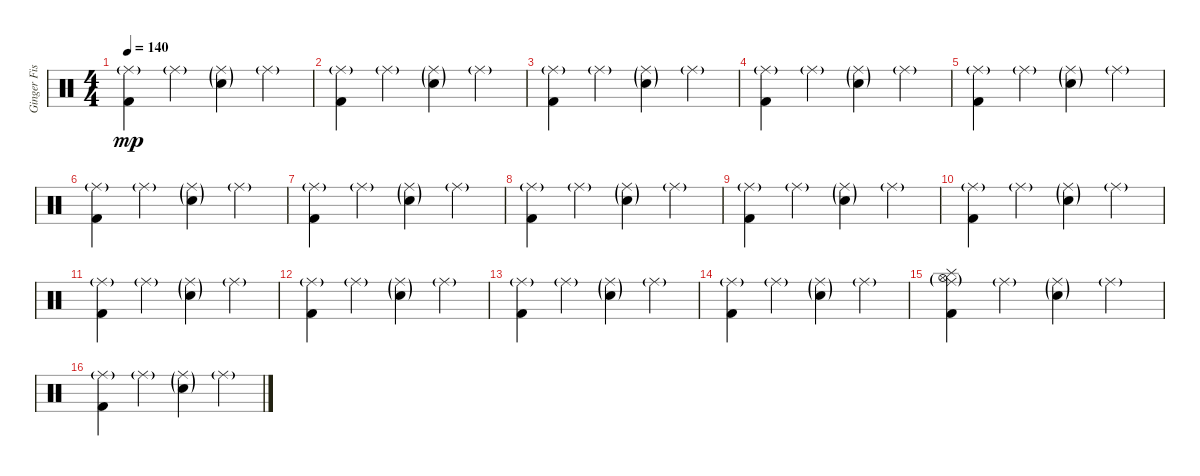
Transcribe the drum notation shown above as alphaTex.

\track ("Ginger Fish" "Ginger Fis") {instrument percussion}
\staff {score}
\articulation defaults
\ts (4 4)
\tempo 140
\clef neutral
\ks c
("Ride (middle)"{g} "Kick (hit) 2").4{dy mp} "Ride (middle)"{g}.4 ("Ride (middle)"{g} "Snare (hit) 2"{g}).4 "Ride (middle)"{g}.4 |
("Ride (middle)"{g} "Kick (hit) 2").4 "Ride (middle)"{g}.4 ("Ride (middle)"{g} "Snare (hit) 2"{g}).4 "Ride (middle)"{g}.4 |
("Ride (middle)"{g} "Kick (hit) 2").4 "Ride (middle)"{g}.4 ("Ride (middle)"{g} "Snare (hit) 2"{g}).4 "Ride (middle)"{g}.4 |
("Ride (middle)"{g} "Kick (hit) 2").4 "Ride (middle)"{g}.4 ("Ride (middle)"{g} "Snare (hit) 2"{g}).4 "Ride (middle)"{g}.4 |
("Ride (middle)"{g} "Kick (hit) 2").4 "Ride (middle)"{g}.4 ("Ride (middle)"{g} "Snare (hit) 2"{g}).4 "Ride (middle)"{g}.4 |
("Ride (middle)"{g} "Kick (hit) 2").4 "Ride (middle)"{g}.4 ("Ride (middle)"{g} "Snare (hit) 2"{g}).4 "Ride (middle)"{g}.4 |
("Ride (middle)"{g} "Kick (hit) 2").4 "Ride (middle)"{g}.4 ("Ride (middle)"{g} "Snare (hit) 2"{g}).4 "Ride (middle)"{g}.4 |
("Ride (middle)"{g} "Kick (hit) 2").4 "Ride (middle)"{g}.4 ("Ride (middle)"{g} "Snare (hit) 2"{g}).4 "Ride (middle)"{g}.4 |
("Ride (middle)"{g} "Kick (hit) 2").4 "Ride (middle)"{g}.4 ("Ride (middle)"{g} "Snare (hit) 2"{g}).4 "Ride (middle)"{g}.4 |
("Ride (middle)"{g} "Kick (hit) 2").4 "Ride (middle)"{g}.4 ("Ride (middle)"{g} "Snare (hit) 2"{g}).4 "Ride (middle)"{g}.4 |
("Ride (middle)"{g} "Kick (hit) 2").4 "Ride (middle)"{g}.4 ("Ride (middle)"{g} "Snare (hit) 2"{g}).4 "Ride (middle)"{g}.4 |
("Ride (middle)"{g} "Kick (hit) 2").4 "Ride (middle)"{g}.4 ("Ride (middle)"{g} "Snare (hit) 2"{g}).4 "Ride (middle)"{g}.4 |
("Ride (middle)"{g} "Kick (hit) 2").4 "Ride (middle)"{g}.4 ("Ride (middle)"{g} "Snare (hit) 2"{g}).4 "Ride (middle)"{g}.4 |
("Ride (middle)"{g} "Kick (hit) 2").4 "Ride (middle)"{g}.4 ("Ride (middle)"{g} "Snare (hit) 2"{g}).4 "Ride (middle)"{g}.4 |
("Ride (middle)"{g} "Hi-Hat (open)"{g} "Splash (hit)" "Kick (hit) 2").4 "Ride (middle)"{g}.4 ("Ride (middle)"{g} "Electric Snare (hit)"{g}).4 "Ride (middle)"{g}.4 |
("Ride (middle)"{g} "Kick (hit) 2").4 "Ride (middle)"{g}.4 ("Ride (middle)"{g} "Electric Snare (hit)"{g}).4 "Ride (middle)"{g}.4
